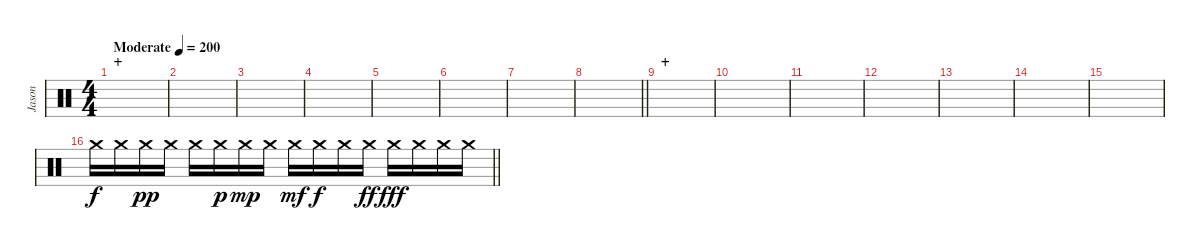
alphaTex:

\track ("Jason" "Jason") {instrument percussion}
\staff {score}
\articulation defaults
\ts (4 4)
\section ("" "+")
\tempo (200 "Moderate")
\clef neutral
\ks c
|
|
|
|
|
|
|
\barLineRight lightlight
|
\section ("" "+")
|
|
|
|
|
|
|
\barLineRight lightlight "Crash medium (hit)".16 "Crash medium (hit)".16 "Crash medium (hit)".16{dy pp} "Crash medium (hit)".16 "Crash medium (hit)".16 "Crash medium (hit)".16{dy p} "Crash medium (hit)".16{dy mp} "Crash medium (hit)".16 "Crash medium (hit)".16{dy mf} "Crash medium (hit)".16{dy f} "Crash medium (hit)".16 "Crash medium (hit)".16{dy ff} "Crash medium (hit)".16{dy fff} "Crash medium (hit)".16 "Crash medium (hit)".16 "Crash medium (hit)".16
